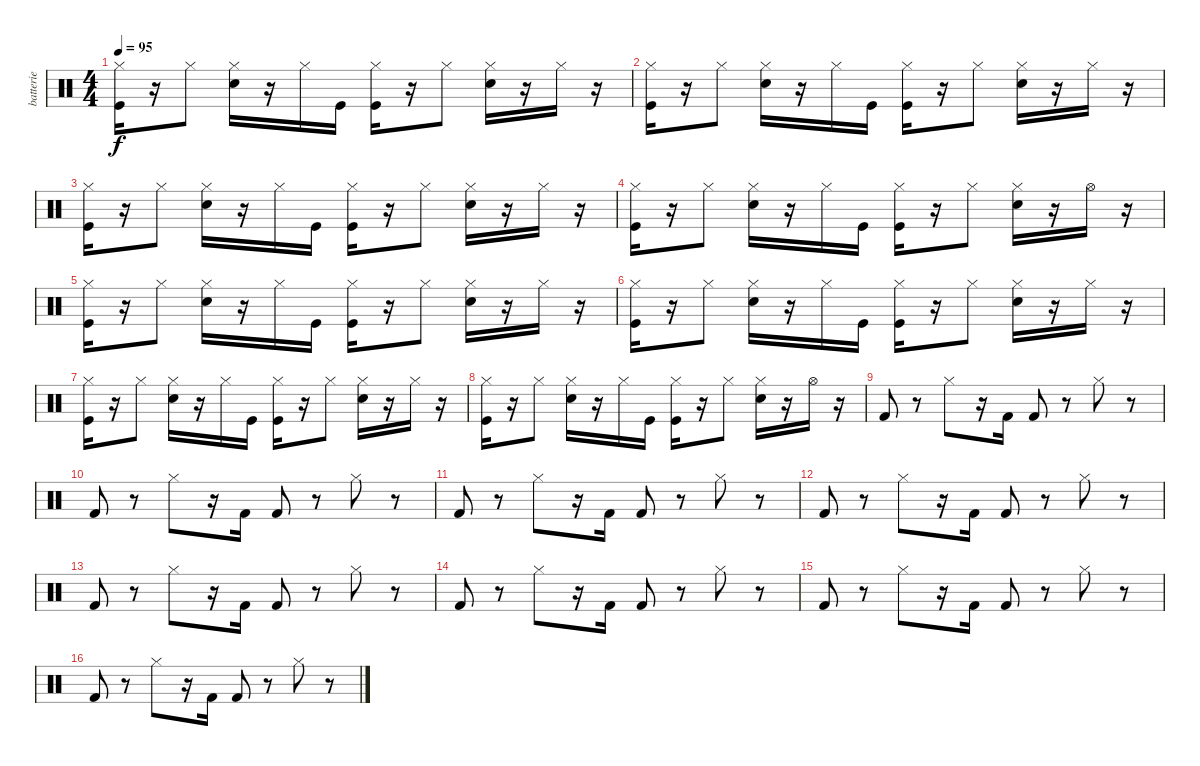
\track ("batterie" "batterie") {instrument percussion}
\staff {score}
\articulation defaults
\ts (4 4)
\tempo 95
\clef neutral
\ks c
("Kick (hit)" "Hi-Hat (closed)").16{dy f} r.16 "Hi-Hat (closed)".8 ("Snare (hit) 2" "Hi-Hat (closed)").16 r.16 "Hi-Hat (closed)".16 "Kick (hit)".16 ("Kick (hit)" "Hi-Hat (closed)").16 r.16 "Hi-Hat (closed)".8 ("Snare (hit) 2" "Hi-Hat (closed)").16 r.16 "Hi-Hat (closed)".16 r.16 |
("Kick (hit)" "Hi-Hat (closed)").16 r.16 "Hi-Hat (closed)".8 ("Snare (hit) 2" "Hi-Hat (closed)").16 r.16 "Hi-Hat (closed)".16 "Kick (hit)".16 ("Kick (hit)" "Hi-Hat (closed)").16 r.16 "Hi-Hat (closed)".8 ("Snare (hit) 2" "Hi-Hat (closed)").16 r.16 "Hi-Hat (closed)".16 r.16 |
("Kick (hit)" "Hi-Hat (closed)").16 r.16 "Hi-Hat (closed)".8 ("Snare (hit) 2" "Hi-Hat (closed)").16 r.16 "Hi-Hat (closed)".16 "Kick (hit)".16 ("Kick (hit)" "Hi-Hat (closed)").16 r.16 "Hi-Hat (closed)".8 ("Snare (hit) 2" "Hi-Hat (closed)").16 r.16 "Hi-Hat (closed)".16 r.16 |
("Kick (hit)" "Hi-Hat (closed)").16 r.16 "Hi-Hat (closed)".8 ("Snare (hit) 2" "Hi-Hat (closed)").16 r.16 "Hi-Hat (closed)".16 "Kick (hit)".16 ("Kick (hit)" "Hi-Hat (closed)").16 r.16 "Hi-Hat (closed)".8 ("Snare (hit) 2" "Hi-Hat (closed)").16 r.16 "Hi-Hat (open)".16 r.16 |
("Kick (hit)" "Hi-Hat (closed)").16 r.16 "Hi-Hat (closed)".8 ("Snare (hit) 2" "Hi-Hat (closed)").16 r.16 "Hi-Hat (closed)".16 "Kick (hit)".16 ("Kick (hit)" "Hi-Hat (closed)").16 r.16 "Hi-Hat (closed)".8 ("Snare (hit) 2" "Hi-Hat (closed)").16 r.16 "Hi-Hat (closed)".16 r.16 |
("Kick (hit)" "Hi-Hat (closed)").16 r.16 "Hi-Hat (closed)".8 ("Snare (hit) 2" "Hi-Hat (closed)").16 r.16 "Hi-Hat (closed)".16 "Kick (hit)".16 ("Kick (hit)" "Hi-Hat (closed)").16 r.16 "Hi-Hat (closed)".8 ("Snare (hit) 2" "Hi-Hat (closed)").16 r.16 "Hi-Hat (closed)".16 r.16 |
("Kick (hit)" "Hi-Hat (closed)").16 r.16 "Hi-Hat (closed)".8 ("Snare (hit) 2" "Hi-Hat (closed)").16 r.16 "Hi-Hat (closed)".16 "Kick (hit)".16 ("Kick (hit)" "Hi-Hat (closed)").16 r.16 "Hi-Hat (closed)".8 ("Snare (hit) 2" "Hi-Hat (closed)").16 r.16 "Hi-Hat (closed)".16 r.16 |
("Kick (hit)" "Hi-Hat (closed)").16 r.16 "Hi-Hat (closed)".8 ("Snare (hit) 2" "Hi-Hat (closed)").16 r.16 "Hi-Hat (closed)".16 "Kick (hit)".16 ("Kick (hit)" "Hi-Hat (closed)").16 r.16 "Hi-Hat (closed)".8 ("Snare (hit) 2" "Hi-Hat (closed)").16 r.16 "Hi-Hat (open)".16 r.16 |
"Kick (hit) 2".8 r.8 "Hi-Hat (closed)".8 r.16 "Kick (hit) 2".16 "Kick (hit) 2".8 r.8 "Hi-Hat (closed)".8 r.8 |
"Kick (hit) 2".8 r.8 "Hi-Hat (closed)".8 r.16 "Kick (hit) 2".16 "Kick (hit) 2".8 r.8 "Hi-Hat (closed)".8 r.8 |
"Kick (hit) 2".8 r.8 "Hi-Hat (closed)".8 r.16 "Kick (hit) 2".16 "Kick (hit) 2".8 r.8 "Hi-Hat (closed)".8 r.8 |
"Kick (hit) 2".8 r.8 "Hi-Hat (closed)".8 r.16 "Kick (hit) 2".16 "Kick (hit) 2".8 r.8 "Hi-Hat (closed)".8 r.8 |
"Kick (hit) 2".8 r.8 "Hi-Hat (closed)".8 r.16 "Kick (hit) 2".16 "Kick (hit) 2".8 r.8 "Hi-Hat (closed)".8 r.8 |
"Kick (hit) 2".8 r.8 "Hi-Hat (closed)".8 r.16 "Kick (hit) 2".16 "Kick (hit) 2".8 r.8 "Hi-Hat (closed)".8 r.8 |
"Kick (hit) 2".8 r.8 "Hi-Hat (closed)".8 r.16 "Kick (hit) 2".16 "Kick (hit) 2".8 r.8 "Hi-Hat (closed)".8 r.8 |
"Kick (hit) 2".8 r.8 "Hi-Hat (closed)".8 r.16 "Kick (hit) 2".16 "Kick (hit) 2".8 r.8 "Hi-Hat (closed)".8 r.8
